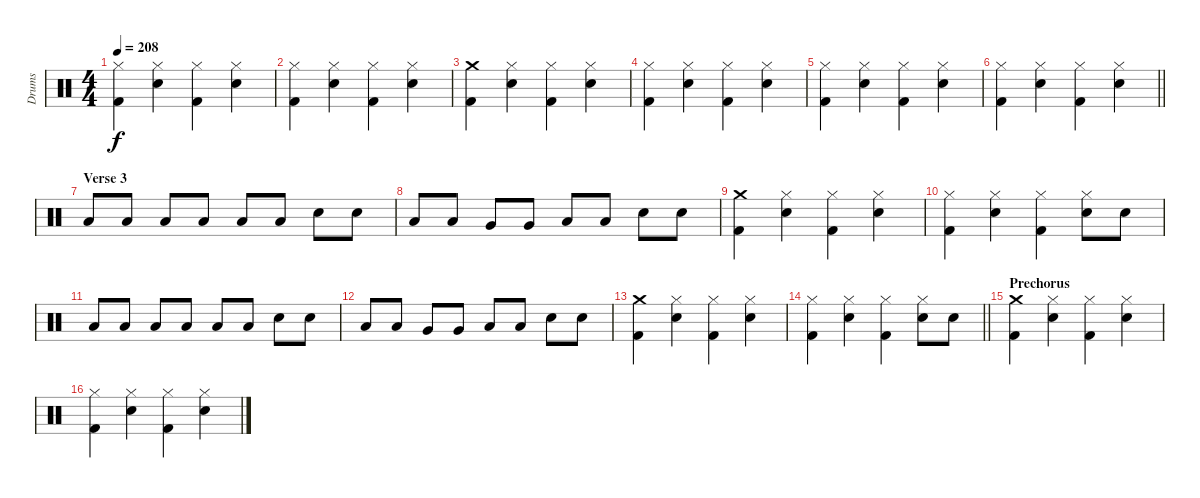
\track ("Drums" "Drums") {instrument percussion}
\staff {score}
\articulation defaults
\ts (4 4)
\tempo 208
\clef neutral
\ks c
("Hi-Hat (closed)" "Kick (hit) 2").4{dy f} ("Hi-Hat (closed)" "Snare (hit) 2").4 ("Hi-Hat (closed)" "Kick (hit) 2").4 ("Hi-Hat (closed)" "Snare (hit) 2").4 |
("Hi-Hat (closed)" "Kick (hit) 2").4 ("Hi-Hat (closed)" "Snare (hit) 2").4 ("Hi-Hat (closed)" "Kick (hit) 2").4 ("Hi-Hat (closed)" "Snare (hit) 2").4 |
("Crash medium (hit)" "Kick (hit) 2").4 ("Hi-Hat (closed)" "Snare (hit) 2").4 ("Hi-Hat (closed)" "Kick (hit) 2").4 ("Hi-Hat (closed)" "Snare (hit) 2").4 |
("Hi-Hat (closed)" "Kick (hit) 2").4 ("Hi-Hat (closed)" "Snare (hit) 2").4 ("Hi-Hat (closed)" "Kick (hit) 2").4 ("Hi-Hat (closed)" "Snare (hit) 2").4 |
("Hi-Hat (closed)" "Kick (hit) 2").4 ("Hi-Hat (closed)" "Snare (hit) 2").4 ("Hi-Hat (closed)" "Kick (hit) 2").4 ("Hi-Hat (closed)" "Snare (hit) 2").4 |
\barLineRight lightlight
("Hi-Hat (closed)" "Kick (hit) 2").4 ("Hi-Hat (closed)" "Snare (hit) 2").4 ("Hi-Hat (closed)" "Kick (hit) 2").4 ("Hi-Hat (closed)" "Snare (hit) 2").4 |
\section ("" "Verse 3")
"Low Floor Tom (hit)".8 "Low Floor Tom (hit)".8 "Low Tom (hit)".8 "Low Tom (hit)".8 "Low Floor Tom (hit)".8 "Low Floor Tom (hit)".8 "Snare (hit) 2".8 "Snare (hit) 2".8 |
"Low Floor Tom (hit)".8 "Low Floor Tom (hit)".8 "Very Low Tom (hit)".8 "Very Low Tom (hit)".8 "Low Floor Tom (hit)".8 "Low Floor Tom (hit)".8 "Snare (hit) 2".8 "Snare (hit) 2".8 |
("Crash medium (hit)" "Kick (hit) 2").4 ("Hi-Hat (closed)" "Snare (hit) 2").4 ("Hi-Hat (closed)" "Kick (hit) 2").4 ("Hi-Hat (closed)" "Snare (hit) 2").4 |
("Hi-Hat (closed)" "Kick (hit) 2").4 ("Hi-Hat (closed)" "Snare (hit) 2").4 ("Hi-Hat (closed)" "Kick (hit) 2").4 ("Hi-Hat (closed)" "Snare (hit) 2").8 "Snare (hit) 2".8 |
"Low Floor Tom (hit)".8 "Low Floor Tom (hit)".8 "Low Tom (hit)".8 "Low Tom (hit)".8 "Low Floor Tom (hit)".8 "Low Floor Tom (hit)".8 "Snare (hit) 2".8 "Snare (hit) 2".8 |
"Low Floor Tom (hit)".8 "Low Floor Tom (hit)".8 "Very Low Tom (hit)".8 "Very Low Tom (hit)".8 "Low Floor Tom (hit)".8 "Low Floor Tom (hit)".8 "Snare (hit) 2".8 "Snare (hit) 2".8 |
("Crash medium (hit)" "Kick (hit) 2").4 ("Hi-Hat (closed)" "Snare (hit) 2").4 ("Hi-Hat (closed)" "Kick (hit) 2").4 ("Hi-Hat (closed)" "Snare (hit) 2").4 |
\barLineRight lightlight
("Hi-Hat (closed)" "Kick (hit) 2").4 ("Hi-Hat (closed)" "Snare (hit) 2").4 ("Hi-Hat (closed)" "Kick (hit) 2").4 ("Hi-Hat (closed)" "Snare (hit) 2").8 "Snare (hit) 2".8 |
\section ("" "Prechorus")
("Crash medium (hit)" "Kick (hit) 2").4 ("Hi-Hat (closed)" "Snare (hit) 2").4 ("Hi-Hat (closed)" "Kick (hit) 2").4 ("Hi-Hat (closed)" "Snare (hit) 2").4 |
("Hi-Hat (closed)" "Kick (hit) 2").4 ("Hi-Hat (closed)" "Snare (hit) 2").4 ("Hi-Hat (closed)" "Kick (hit) 2").4 ("Hi-Hat (closed)" "Snare (hit) 2").4
